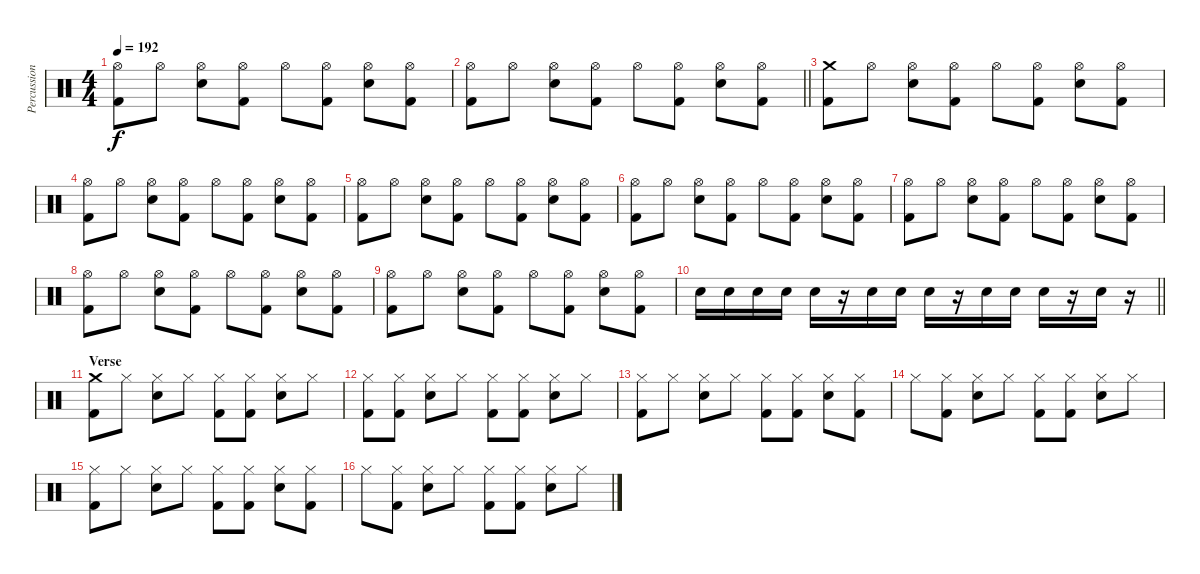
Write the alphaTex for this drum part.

\track ("Percussion" "Percussion") {instrument percussion}
\staff {score}
\articulation defaults
\ts (4 4)
\tempo 192
\clef neutral
\ks c
("Hi-Hat (open)" "Kick (hit) 2").8{dy f} "Hi-Hat (open)".8 ("Hi-Hat (open)" "Electric Snare (hit)").8 ("Hi-Hat (open)" "Kick (hit) 2").8 "Hi-Hat (open)".8 ("Hi-Hat (open)" "Kick (hit) 2").8 ("Hi-Hat (open)" "Electric Snare (hit)").8 ("Hi-Hat (open)" "Kick (hit) 2").8 |
\barLineRight lightlight
("Hi-Hat (open)" "Kick (hit) 2").8 "Hi-Hat (open)".8 ("Hi-Hat (open)" "Electric Snare (hit)").8 ("Hi-Hat (open)" "Kick (hit) 2").8 "Hi-Hat (open)".8 ("Hi-Hat (open)" "Kick (hit) 2").8 ("Hi-Hat (open)" "Electric Snare (hit)").8 ("Hi-Hat (open)" "Kick (hit) 2").8 |
("Crash medium (hit)" "Kick (hit) 2").8 "Hi-Hat (open)".8 ("Hi-Hat (open)" "Electric Snare (hit)").8 ("Hi-Hat (open)" "Kick (hit) 2").8 "Hi-Hat (open)".8 ("Hi-Hat (open)" "Kick (hit) 2").8 ("Hi-Hat (open)" "Electric Snare (hit)").8 ("Hi-Hat (open)" "Kick (hit) 2").8 |
("Hi-Hat (open)" "Kick (hit) 2").8 "Hi-Hat (open)".8 ("Hi-Hat (open)" "Electric Snare (hit)").8 ("Hi-Hat (open)" "Kick (hit) 2").8 "Hi-Hat (open)".8 ("Hi-Hat (open)" "Kick (hit) 2").8 ("Hi-Hat (open)" "Electric Snare (hit)").8 ("Hi-Hat (open)" "Kick (hit) 2").8 |
("Hi-Hat (open)" "Kick (hit) 2").8 "Hi-Hat (open)".8 ("Hi-Hat (open)" "Electric Snare (hit)").8 ("Hi-Hat (open)" "Kick (hit) 2").8 "Hi-Hat (open)".8 ("Hi-Hat (open)" "Kick (hit) 2").8 ("Hi-Hat (open)" "Electric Snare (hit)").8 ("Hi-Hat (open)" "Kick (hit) 2").8 |
("Hi-Hat (open)" "Kick (hit) 2").8 "Hi-Hat (open)".8 ("Hi-Hat (open)" "Electric Snare (hit)").8 ("Hi-Hat (open)" "Kick (hit) 2").8 "Hi-Hat (open)".8 ("Hi-Hat (open)" "Kick (hit) 2").8 ("Hi-Hat (open)" "Electric Snare (hit)").8 ("Hi-Hat (open)" "Kick (hit) 2").8 |
("Hi-Hat (open)" "Kick (hit) 2").8 "Hi-Hat (open)".8 ("Hi-Hat (open)" "Electric Snare (hit)").8 ("Hi-Hat (open)" "Kick (hit) 2").8 "Hi-Hat (open)".8 ("Hi-Hat (open)" "Kick (hit) 2").8 ("Hi-Hat (open)" "Electric Snare (hit)").8 ("Hi-Hat (open)" "Kick (hit) 2").8 |
("Hi-Hat (open)" "Kick (hit) 2").8 "Hi-Hat (open)".8 ("Hi-Hat (open)" "Electric Snare (hit)").8 ("Hi-Hat (open)" "Kick (hit) 2").8 "Hi-Hat (open)".8 ("Hi-Hat (open)" "Kick (hit) 2").8 ("Hi-Hat (open)" "Electric Snare (hit)").8 ("Hi-Hat (open)" "Kick (hit) 2").8 |
("Hi-Hat (open)" "Kick (hit) 2").8 "Hi-Hat (open)".8 ("Hi-Hat (open)" "Electric Snare (hit)").8 ("Hi-Hat (open)" "Kick (hit) 2").8 "Hi-Hat (open)".8 ("Hi-Hat (open)" "Kick (hit) 2").8 ("Hi-Hat (open)" "Electric Snare (hit)").8 ("Hi-Hat (open)" "Kick (hit) 2").8 |
\barLineRight lightlight "Electric Snare (hit)".16 "Electric Snare (hit)".16 "Electric Snare (hit)".16 "Electric Snare (hit)".16 "Electric Snare (hit)".16
r.16 "Electric Snare (hit)".16 "Electric Snare (hit)".16 "Electric Snare (hit)".16 r.16 "Electric Snare (hit)".16 "Electric Snare (hit)".16 "Electric Snare (hit)".16 r.16 "Electric Snare (hit)".16 r.16 |
\section ("" "Verse")
("Crash medium (hit)" "Kick (hit) 2").8 "Hi-Hat (closed)".8 ("Hi-Hat (closed)" "Electric Snare (hit)").8 "Hi-Hat (closed)".8 ("Hi-Hat (closed)" "Kick (hit) 2").8 ("Hi-Hat (closed)" "Kick (hit) 2").8 ("Hi-Hat (closed)" "Electric Snare (hit)").8 "Hi-Hat (closed)".8 |
("Hi-Hat (closed)" "Kick (hit) 2").8 ("Hi-Hat (closed)" "Kick (hit) 2").8 ("Hi-Hat (closed)" "Electric Snare (hit)").8 "Hi-Hat (closed)".8 ("Hi-Hat (closed)" "Kick (hit) 2").8 ("Hi-Hat (closed)" "Kick (hit) 2").8 ("Hi-Hat (closed)" "Electric Snare (hit)").8 "Hi-Hat (closed)".8 |
("Hi-Hat (closed)" "Kick (hit) 2").8 "Hi-Hat (closed)".8 ("Hi-Hat (closed)" "Electric Snare (hit)").8 "Hi-Hat (closed)".8 ("Hi-Hat (closed)" "Kick (hit) 2").8 ("Hi-Hat (closed)" "Kick (hit) 2").8 ("Hi-Hat (closed)" "Electric Snare (hit)").8 ("Hi-Hat (closed)" "Kick (hit) 2").8 |
"Hi-Hat (closed)".8 ("Hi-Hat (closed)" "Kick (hit) 2").8 ("Hi-Hat (closed)" "Electric Snare (hit)").8 "Hi-Hat (closed)".8 ("Hi-Hat (closed)" "Kick (hit) 2").8 ("Hi-Hat (closed)" "Kick (hit) 2").8 ("Hi-Hat (closed)" "Electric Snare (hit)").8 "Hi-Hat (closed)".8 |
("Hi-Hat (closed)" "Kick (hit) 2").8 "Hi-Hat (closed)".8 ("Hi-Hat (closed)" "Electric Snare (hit)").8 "Hi-Hat (closed)".8 ("Hi-Hat (closed)" "Kick (hit) 2").8 ("Hi-Hat (closed)" "Kick (hit) 2").8 ("Hi-Hat (closed)" "Electric Snare (hit)").8 ("Hi-Hat (closed)" "Kick (hit) 2").8 |
"Hi-Hat (closed)".8 ("Hi-Hat (closed)" "Kick (hit) 2").8 ("Hi-Hat (closed)" "Electric Snare (hit)").8 "Hi-Hat (closed)".8 ("Hi-Hat (closed)" "Kick (hit) 2").8 ("Hi-Hat (closed)" "Kick (hit) 2").8 ("Hi-Hat (closed)" "Electric Snare (hit)").8 "Hi-Hat (closed)".8
